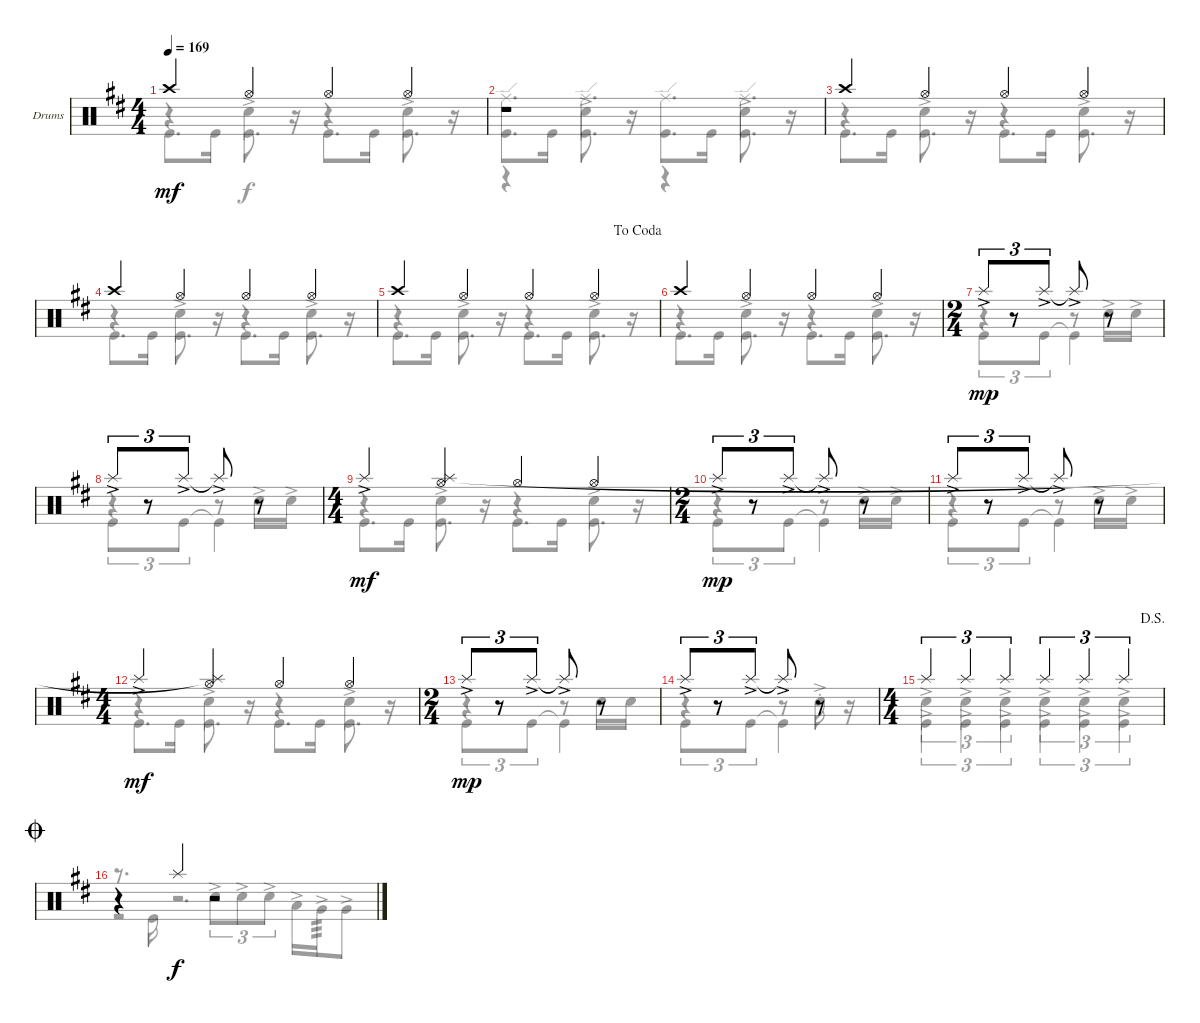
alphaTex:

\defaultSystemsLayout 4
\bracketExtendMode groupsimilarinstruments
\firstSystemTrackNameOrientation horizontal
\otherSystemsTrackNameOrientation horizontal
\track ("Drumkit (Wolf Gemora)" "Drums") {instrument percussion}
\staff {score}
\articulation defaults
\voice
\ts (4 4)
\tempo 169
\clef neutral
\ks bminor "Crash high (hit)".4{dy mf} "Hi-Hat (open)".4 "Hi-Hat (open)".4 "Hi-Hat (open)".4
|
r.1 |
"Crash high (hit)".4 "Hi-Hat (open)".4 "Hi-Hat (open)".4 "Hi-Hat (open)".4 |
"Crash high (hit)".4 "Hi-Hat (open)".4 "Hi-Hat (open)".4 "Hi-Hat (open)".4 |
\jump dacoda "Crash high (hit)".4 "Hi-Hat (open)".4 "Hi-Hat (open)".4 "Hi-Hat (open)".4
|
"Crash high (hit)".4 "Hi-Hat (open)".4 "Hi-Hat (open)".4 "Hi-Hat (open)".4 |
\ts (2 4)
"Splash (hit)"{ac}.8{tu (3 2) dy mp} r.8{tu (3 2)} "Splash (hit)"{ac}.8{tu (3 2)} "Splash (hit)"{ac t}.8 r.8 |
"Splash (hit)"{ac}.8{tu (3 2)} r.8{tu (3 2)} "Splash (hit)"{ac}.8{tu (3 2)} "Splash (hit)"{ac t}.8 r.8 |
\ts (4 4)
"Splash (hit)"{ac}.4{dy mf} ("Hi-Hat (open)" "Splash (hit)").4 "Hi-Hat (open)".4 "Hi-Hat (open)".4 |
\ts (2 4)
"Splash (hit)"{ac}.8{tu (3 2) dy mp} r.8{tu (3 2)} "Splash (hit)"{ac}.8{tu (3 2)} "Splash (hit)"{ac t}.8 r.8 |
"Splash (hit)"{ac}.8{tu (3 2)} r.8{tu (3 2)} "Splash (hit)"{ac}.8{tu (3 2)} "Splash (hit)"{ac t}.8 r.8 |
\ts (4 4)
"Splash (hit)"{ac}.4{dy mf} ("Hi-Hat (open)" "Splash (hit)"{t}).4 "Hi-Hat (open)".4 "Hi-Hat (open)".4 |
\ts (2 4)
"Splash (hit)"{ac}.8{tu (3 2) dy mp} r.8{tu (3 2)} "Splash (hit)"{ac}.8{tu (3 2)} "Splash (hit)"{ac t}.8 r.8 |
"Splash (hit)"{ac}.8{tu (3 2)} r.8{tu (3 2)} "Splash (hit)"{ac}.8{tu (3 2)} "Splash (hit)"{ac t}.8 r.8 |
\ts (4 4)
\jump dalsegno "Splash (hit)".4{tu (3 2)} "Splash (hit)".4{tu (3 2)} "Splash (hit)".4{tu (3 2)} "Splash (hit)".4{tu (3 2)} "Splash (hit)".4{tu (3 2)} "Splash (hit)".4{tu (3 2)}
|
\jump coda
r.4 "Splash (hit)".4{dy f} r.2
\voice
\clef neutral
\ottava regular
\simile none
\ks bminor "Kick (hit)".8{d dy mf} "Kick (hit)".16 "Kick (hit)".8{d}
r.16 "Kick (hit)".8{d} "Kick (hit)".16 "Kick (hit)".8{d} r.16 |
("Kick (hit)" "Ride (edge)").8{d} "Kick (hit)".16 ("Kick (hit)" "Ride (edge)").8{d} r.16 ("Kick (hit)" "Ride (edge)").8{d} "Kick (hit)".16 ("Kick (hit)" "Ride (edge)").8{d} r.16 |
"Kick (hit)".8{d} "Kick (hit)".16 "Kick (hit)".8{d} r.16 "Kick (hit)".8{d} "Kick (hit)".16 "Kick (hit)".8{d} r.16 |
"Kick (hit)".8{d} "Kick (hit)".16 "Kick (hit)".8{d} r.16 "Kick (hit)".8{d} "Kick (hit)".16 "Kick (hit)".8{d} r.16 |
"Kick (hit)".8{d} "Kick (hit)".16 "Kick (hit)".8{d} r.16 "Kick (hit)".8{d} "Kick (hit)".16 "Kick (hit)".8{d} r.16 |
"Kick (hit)".8{d} "Kick (hit)".16 "Kick (hit)".8{d} r.16 "Kick (hit)".8{d} "Kick (hit)".16 "Kick (hit)".8{d} r.16 |
"Kick (hit)".8{tu (3 2)} r.8{tu (3 2)} "Kick (hit)".8{tu (3 2)} "Kick (hit)"{t}.4 |
"Kick (hit)".8{tu (3 2)} r.8{tu (3 2)} "Kick (hit)".8{tu (3 2)} "Kick (hit)"{t}.4 |
"Kick (hit)".8{d} "Kick (hit)".16 "Kick (hit)".8{d} r.16 "Kick (hit)".8{d} "Kick (hit)".16 "Kick (hit)".8{d} r.16 |
"Kick (hit)".8{tu (3 2)} r.8{tu (3 2)} "Kick (hit)".8{tu (3 2)} "Kick (hit)"{t}.4 |
"Kick (hit)".8{tu (3 2)} r.8{tu (3 2)} "Kick (hit)".8{tu (3 2)} "Kick (hit)"{t}.4 |
"Kick (hit)".8{d} "Kick (hit)".16 "Kick (hit)".8{d} r.16 "Kick (hit)".8{d} "Kick (hit)".16 "Kick (hit)".8{d} r.16 |
"Kick (hit)".8{tu (3 2)} r.8{tu (3 2)} "Kick (hit)".8{tu (3 2)} "Kick (hit)"{t}.4 |
"Kick (hit)".8{tu (3 2)} r.8{tu (3 2)} "Kick (hit)".8{tu (3 2)} "Kick (hit)"{t}.4 |
"Kick (hit)"{ac}.4{tu (3 2)} "Kick (hit)"{ac}.4{tu (3 2)} "Kick (hit)"{ac}.4{tu (3 2)} "Kick (hit)"{ac}.4{tu (3 2)} "Kick (hit)"{ac}.4{tu (3 2)} "Kick (hit)"{ac}.4{tu (3 2)} |
r.8{d} "Kick (hit)".16 r.2{d}
\voice
\clef neutral
\ottava regular
\simile none
\ks bminor
r.4{dy f} "Snare (hit) 2"{ac}.4 r.4 "Snare (hit) 2"{ac}.4 |
r.4 "Snare (hit) 2"{ac}.4 r.4 "Snare (hit) 2"{ac}.4 |
r.4 "Snare (hit) 2"{ac}.4 r.4 "Snare (hit) 2"{ac}.4 |
r.4 "Snare (hit) 2"{ac}.4 r.4 "Snare (hit) 2"{ac}.4 |
r.4 "Snare (hit) 2"{ac}.4 r.4 "Snare (hit) 2"{ac}.4 |
r.4 "Snare (hit) 2"{ac}.4 r.4 "Snare (hit) 2"{ac}.4 |
r.4 r.8 "Snare (hit) 2"{ac}.16 "Snare (hit) 2"{ac}.16 |
r.4 r.8 "Snare (hit) 2"{ac}.16 "Snare (hit) 2"{ac}.16 |
r.4 "Snare (hit) 2"{ac}.4 r.4 "Snare (hit) 2"{ac}.4 |
r.4 r.8 "Snare (hit) 2"{ac}.16 "Snare (hit) 2"{ac}.16 |
r.4 r.8 "Snare (hit) 2"{ac}.16 "Snare (hit) 2"{ac}.16 |
r.4 "Snare (hit) 2"{ac}.4 r.4 "Snare (hit) 2"{ac}.4 |
r.4 r.8 "Snare (hit) 2".16 "Snare (hit) 2".16 |
r.4 r.8 "Snare (hit) 2"{ac st}.16 r.16 |
"Snare (hit) 2"{ac}.4{tu (3 2)} "Snare (hit) 2"{ac}.4{tu (3 2)} "Snare (hit) 2"{ac}.4{tu (3 2)} "Snare (hit) 2"{ac}.4{tu (3 2)} "Snare (hit) 2"{ac}.4{tu (3 2)} "Snare (hit) 2"{ac}.4{tu (3 2)} |
r.2 "Snare (hit) 2"{ac}.8{tu (3 2)} "Snare (hit) 2"{ac}.8{tu (3 2)} "Snare (hit) 2"{ac}.8{tu (3 2)} "Low Tom (hit)"{ac}.16 "Very Low Tom (hit)"{ac}.16{tp 3} "Very Low Tom (hit)"{ac}.8
